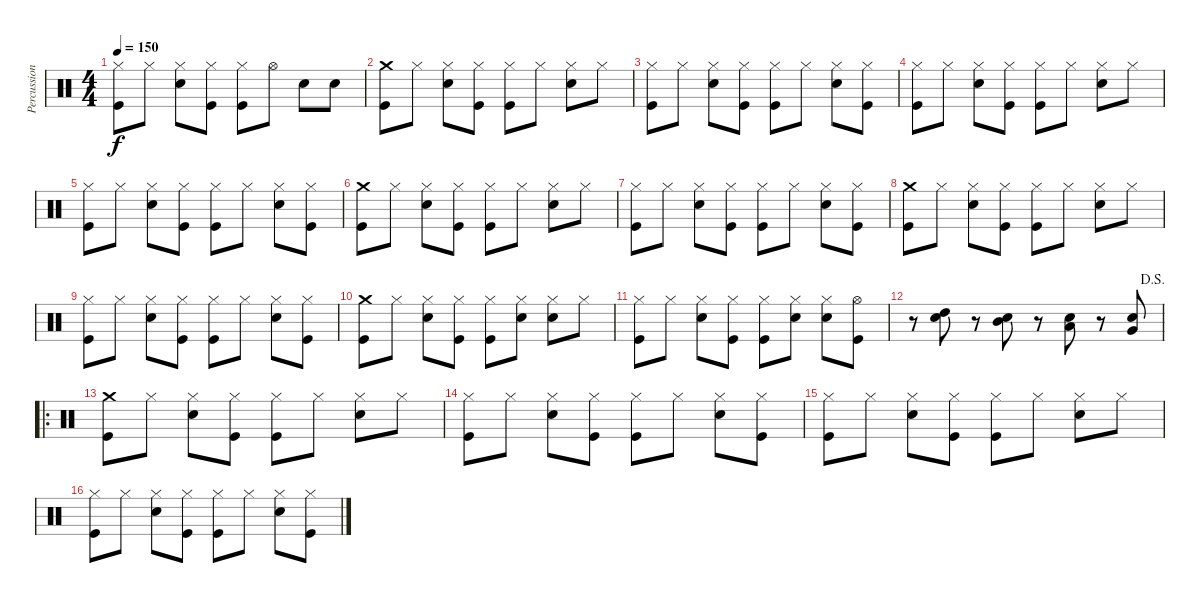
\track ("Percussions" "Percussion") {instrument percussion}
\staff {score}
\articulation defaults
\ts (4 4)
\tempo 150
\clef neutral
\ks c
("Hi-Hat (closed)" "Kick (hit)").8{dy f} "Hi-Hat (closed)".8 ("Hi-Hat (closed)" "Snare (hit) 2").8 ("Hi-Hat (closed)" "Kick (hit)").8 ("Hi-Hat (closed)" "Kick (hit)").8 "Hi-Hat (open)".8 "Snare (hit) 2".8 "Snare (hit) 2".8 |
("Crash medium (hit)" "Kick (hit)").8 "Hi-Hat (closed)".8 ("Hi-Hat (closed)" "Snare (hit) 2").8 ("Hi-Hat (closed)" "Kick (hit)").8 ("Hi-Hat (closed)" "Kick (hit)").8 "Hi-Hat (closed)".8 ("Hi-Hat (closed)" "Snare (hit) 2").8 "Hi-Hat (closed)".8 |
("Hi-Hat (closed)" "Kick (hit)").8 "Hi-Hat (closed)".8 ("Hi-Hat (closed)" "Snare (hit) 2").8 ("Hi-Hat (closed)" "Kick (hit)").8 ("Hi-Hat (closed)" "Kick (hit)").8 "Hi-Hat (closed)".8 ("Hi-Hat (closed)" "Snare (hit) 2").8 ("Hi-Hat (closed)" "Kick (hit)").8 |
("Hi-Hat (closed)" "Kick (hit)").8 "Hi-Hat (closed)".8 ("Hi-Hat (closed)" "Snare (hit) 2").8 ("Hi-Hat (closed)" "Kick (hit)").8 ("Hi-Hat (closed)" "Kick (hit)").8 "Hi-Hat (closed)".8 ("Hi-Hat (closed)" "Snare (hit) 2").8 "Hi-Hat (closed)".8 |
("Hi-Hat (closed)" "Kick (hit)").8 "Hi-Hat (closed)".8 ("Hi-Hat (closed)" "Snare (hit) 2").8 ("Hi-Hat (closed)" "Kick (hit)").8 ("Hi-Hat (closed)" "Kick (hit)").8 "Hi-Hat (closed)".8 ("Hi-Hat (closed)" "Snare (hit) 2").8 ("Hi-Hat (closed)" "Kick (hit)").8 |
("Crash medium (hit)" "Kick (hit)").8 "Hi-Hat (closed)".8 ("Hi-Hat (closed)" "Snare (hit) 2").8 ("Hi-Hat (closed)" "Kick (hit)").8 ("Hi-Hat (closed)" "Kick (hit)").8 "Hi-Hat (closed)".8 ("Hi-Hat (closed)" "Snare (hit) 2").8 "Hi-Hat (closed)".8 |
("Hi-Hat (closed)" "Kick (hit)").8 "Hi-Hat (closed)".8 ("Hi-Hat (closed)" "Snare (hit) 2").8 ("Hi-Hat (closed)" "Kick (hit)").8 ("Hi-Hat (closed)" "Kick (hit)").8 "Hi-Hat (closed)".8 ("Hi-Hat (closed)" "Snare (hit) 2").8 ("Hi-Hat (closed)" "Kick (hit)").8 |
("Crash medium (hit)" "Kick (hit)").8 "Hi-Hat (closed)".8 ("Hi-Hat (closed)" "Snare (hit) 2").8 ("Hi-Hat (closed)" "Kick (hit)").8 ("Hi-Hat (closed)" "Kick (hit)").8 "Hi-Hat (closed)".8 ("Hi-Hat (closed)" "Snare (hit) 2").8 "Hi-Hat (closed)".8 |
("Hi-Hat (closed)" "Kick (hit)").8 "Hi-Hat (closed)".8 ("Hi-Hat (closed)" "Snare (hit) 2").8 ("Hi-Hat (closed)" "Kick (hit)").8 ("Hi-Hat (closed)" "Kick (hit)").8 "Hi-Hat (closed)".8 ("Hi-Hat (closed)" "Snare (hit) 2").8 ("Hi-Hat (closed)" "Kick (hit)").8 |
("Crash medium (hit)" "Kick (hit)").8 "Hi-Hat (closed)".8 ("Hi-Hat (closed)" "Snare (hit) 2").8 ("Hi-Hat (closed)" "Kick (hit)").8 ("Hi-Hat (closed)" "Kick (hit)").8 ("Hi-Hat (closed)" "Snare (hit) 2").8 ("Hi-Hat (closed)" "Snare (hit) 2").8 "Hi-Hat (closed)".8 |
("Hi-Hat (closed)" "Kick (hit)").8 "Hi-Hat (closed)".8 ("Hi-Hat (closed)" "Snare (hit) 2").8 ("Hi-Hat (closed)" "Kick (hit)").8 ("Hi-Hat (closed)" "Kick (hit)").8 ("Hi-Hat (closed)" "Snare (hit) 2").8 ("Hi-Hat (closed)" "Snare (hit) 2").8 ("Hi-Hat (open)" "Kick (hit)").8 |
\jump dalsegno
r.8 ("High Tom (hit)" "Snare (hit) 2").8 r.8 ("Mid Tom (hit)" "Snare (hit) 2").8 r.8 ("Low Tom (hit)" "Snare (hit) 2").8 r.8 ("Very Low Tom (hit)" "Snare (hit) 2").8 |
\ro
("Crash medium (hit)" "Kick (hit)").8 "Hi-Hat (closed)".8 ("Hi-Hat (closed)" "Snare (hit) 2").8 ("Hi-Hat (closed)" "Kick (hit)").8 ("Hi-Hat (closed)" "Kick (hit)").8 "Hi-Hat (closed)".8 ("Hi-Hat (closed)" "Snare (hit) 2").8 "Hi-Hat (closed)".8 |
("Hi-Hat (closed)" "Kick (hit)").8 "Hi-Hat (closed)".8 ("Hi-Hat (closed)" "Snare (hit) 2").8 ("Hi-Hat (closed)" "Kick (hit)").8 ("Hi-Hat (closed)" "Kick (hit)").8 "Hi-Hat (closed)".8 ("Hi-Hat (closed)" "Snare (hit) 2").8 ("Hi-Hat (closed)" "Kick (hit)").8 |
("Hi-Hat (closed)" "Kick (hit)").8 "Hi-Hat (closed)".8 ("Hi-Hat (closed)" "Snare (hit) 2").8 ("Hi-Hat (closed)" "Kick (hit)").8 ("Hi-Hat (closed)" "Kick (hit)").8 "Hi-Hat (closed)".8 ("Hi-Hat (closed)" "Snare (hit) 2").8 "Hi-Hat (closed)".8 |
("Hi-Hat (closed)" "Kick (hit)").8 "Hi-Hat (closed)".8 ("Hi-Hat (closed)" "Snare (hit) 2").8 ("Hi-Hat (closed)" "Kick (hit)").8 ("Hi-Hat (closed)" "Kick (hit)").8 "Hi-Hat (closed)".8 ("Hi-Hat (closed)" "Snare (hit) 2").8 ("Hi-Hat (closed)" "Kick (hit)").8
